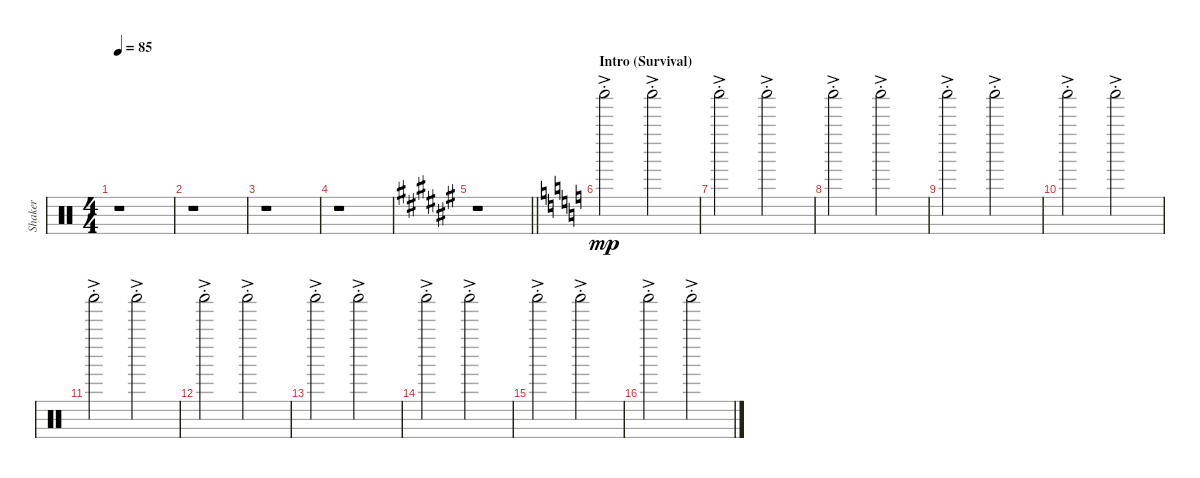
\track ("Shaker" "Shaker") {instrument percussion}
\staff {score}
\articulation defaults
\ts (4 4)
\tempo 85
\clef neutral
\ks c
r.1{dy mp} |
r.1 |
r.1 |
r.1 |
\barLineRight lightlight
\ks f#
r.1 |
\section ("" "Intro (Survival)")
\ks c "Shaker (hit)"{ac st}.2 "Shaker (hit)"{ac st}.2
|
"Shaker (hit)"{ac st}.2 "Shaker (hit)"{ac st}.2 |
"Shaker (hit)"{ac st}.2 "Shaker (hit)"{ac st}.2 |
"Shaker (hit)"{ac st}.2 "Shaker (hit)"{ac st}.2 |
"Shaker (hit)"{ac st}.2 "Shaker (hit)"{ac st}.2 |
"Shaker (hit)"{ac st}.2 "Shaker (hit)"{ac st}.2 |
"Shaker (hit)"{ac st}.2 "Shaker (hit)"{ac st}.2 |
"Shaker (hit)"{ac st}.2 "Shaker (hit)"{ac st}.2 |
"Shaker (hit)"{ac st}.2 "Shaker (hit)"{ac st}.2 |
"Shaker (hit)"{ac st}.2 "Shaker (hit)"{ac st}.2 |
"Shaker (hit)"{ac st}.2 "Shaker (hit)"{ac st}.2
